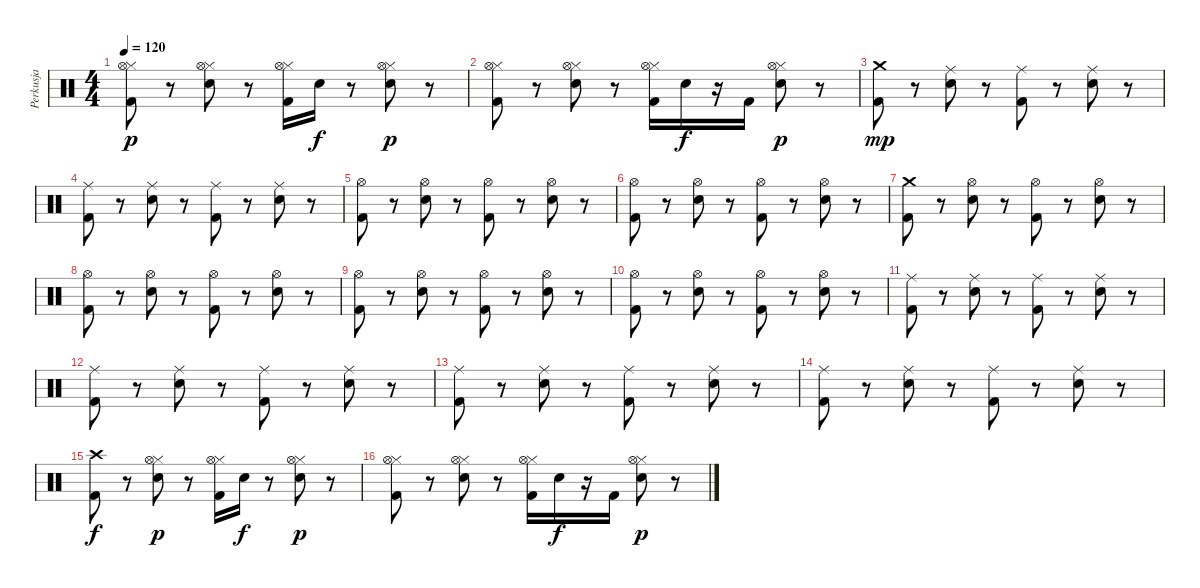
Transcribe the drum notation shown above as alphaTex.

\track ("Perkusja" "Perkusja") {instrument percussion}
\staff {score}
\articulation defaults
\ts (4 4)
\tempo 120
\clef neutral
\ks c
("Kick (hit) 2" "Hi-Hat (closed)" "Hi-Hat (open)").8{dy p} r.8 ("Electric Snare (hit)" "Hi-Hat (closed)" "Hi-Hat (open)").8 r.8 ("Kick (hit) 2" "Hi-Hat (closed)" "Hi-Hat (open)").16 "Electric Snare (hit)".16{dy f} r.8 ("Electric Snare (hit)" "Hi-Hat (closed)" "Hi-Hat (open)").8{dy p} r.8 |
("Kick (hit) 2" "Hi-Hat (closed)" "Hi-Hat (open)").8 r.8 ("Electric Snare (hit)" "Hi-Hat (closed)" "Hi-Hat (open)").8 r.8 ("Kick (hit) 2" "Hi-Hat (closed)" "Hi-Hat (open)").16 "Electric Snare (hit)".16{dy f} r.16 "Kick (hit) 2".16 ("Electric Snare (hit)" "Hi-Hat (closed)" "Hi-Hat (open)").8{dy p} r.8 |
("Kick (hit) 2" "Crash medium (hit)").8{dy mp} r.8 ("Electric Snare (hit)" "Ride (middle)").8 r.8 ("Kick (hit) 2" "Ride (middle)").8 r.8 ("Electric Snare (hit)" "Ride (middle)").8 r.8 |
("Kick (hit) 2" "Ride (middle)").8 r.8 ("Electric Snare (hit)" "Ride (middle)").8 r.8 ("Kick (hit) 2" "Ride (middle)").8 r.8 ("Electric Snare (hit)" "Ride (middle)").8 r.8 |
("Kick (hit) 2" "Hi-Hat (open)").8 r.8 ("Electric Snare (hit)" "Hi-Hat (open)").8 r.8 ("Kick (hit) 2" "Hi-Hat (open)").8 r.8 ("Electric Snare (hit)" "Hi-Hat (open)").8 r.8 |
("Kick (hit) 2" "Hi-Hat (open)").8 r.8 ("Electric Snare (hit)" "Hi-Hat (open)").8 r.8 ("Kick (hit) 2" "Hi-Hat (open)").8 r.8 ("Electric Snare (hit)" "Hi-Hat (open)").8 r.8 |
("Kick (hit) 2" "Crash medium (hit)").8 r.8 ("Electric Snare (hit)" "Hi-Hat (open)").8 r.8 ("Kick (hit) 2" "Hi-Hat (open)").8 r.8 ("Electric Snare (hit)" "Hi-Hat (open)").8 r.8 |
("Kick (hit) 2" "Hi-Hat (open)").8 r.8 ("Electric Snare (hit)" "Hi-Hat (open)").8 r.8 ("Kick (hit) 2" "Hi-Hat (open)").8 r.8 ("Electric Snare (hit)" "Hi-Hat (open)").8 r.8 |
("Kick (hit) 2" "Hi-Hat (open)").8 r.8 ("Electric Snare (hit)" "Hi-Hat (open)").8 r.8 ("Kick (hit) 2" "Hi-Hat (open)").8 r.8 ("Electric Snare (hit)" "Hi-Hat (open)").8 r.8 |
("Kick (hit) 2" "Hi-Hat (open)").8 r.8 ("Electric Snare (hit)" "Hi-Hat (open)").8 r.8 ("Kick (hit) 2" "Hi-Hat (open)").8 r.8 ("Electric Snare (hit)" "Hi-Hat (open)").8 r.8 |
("Kick (hit) 2" "Ride (middle)").8 r.8 ("Electric Snare (hit)" "Ride (middle)").8 r.8 ("Kick (hit) 2" "Ride (middle)").8 r.8 ("Electric Snare (hit)" "Ride (middle)").8 r.8 |
("Kick (hit) 2" "Ride (middle)").8 r.8 ("Electric Snare (hit)" "Ride (middle)").8 r.8 ("Kick (hit) 2" "Ride (middle)").8 r.8 ("Electric Snare (hit)" "Ride (middle)").8 r.8 |
("Kick (hit) 2" "Ride (middle)").8 r.8 ("Electric Snare (hit)" "Ride (middle)").8 r.8 ("Kick (hit) 2" "Ride (middle)").8 r.8 ("Electric Snare (hit)" "Ride (middle)").8 r.8 |
("Kick (hit) 2" "Ride (middle)").8 r.8 ("Electric Snare (hit)" "Ride (middle)").8 r.8 ("Kick (hit) 2" "Ride (middle)").8 r.8 ("Electric Snare (hit)" "Ride (middle)").8 r.8 |
("Kick (hit) 2" "Crash high (hit)").8{dy f} r.8 ("Electric Snare (hit)" "Hi-Hat (closed)" "Hi-Hat (open)").8{dy p} r.8 ("Kick (hit) 2" "Hi-Hat (closed)" "Hi-Hat (open)").16 "Electric Snare (hit)".16{dy f} r.8 ("Electric Snare (hit)" "Hi-Hat (closed)" "Hi-Hat (open)").8{dy p} r.8 |
("Kick (hit) 2" "Hi-Hat (closed)" "Hi-Hat (open)").8 r.8 ("Electric Snare (hit)" "Hi-Hat (closed)" "Hi-Hat (open)").8 r.8 ("Kick (hit) 2" "Hi-Hat (closed)" "Hi-Hat (open)").16 "Electric Snare (hit)".16{dy f} r.16 "Kick (hit) 2".16 ("Electric Snare (hit)" "Hi-Hat (closed)" "Hi-Hat (open)").8{dy p} r.8
